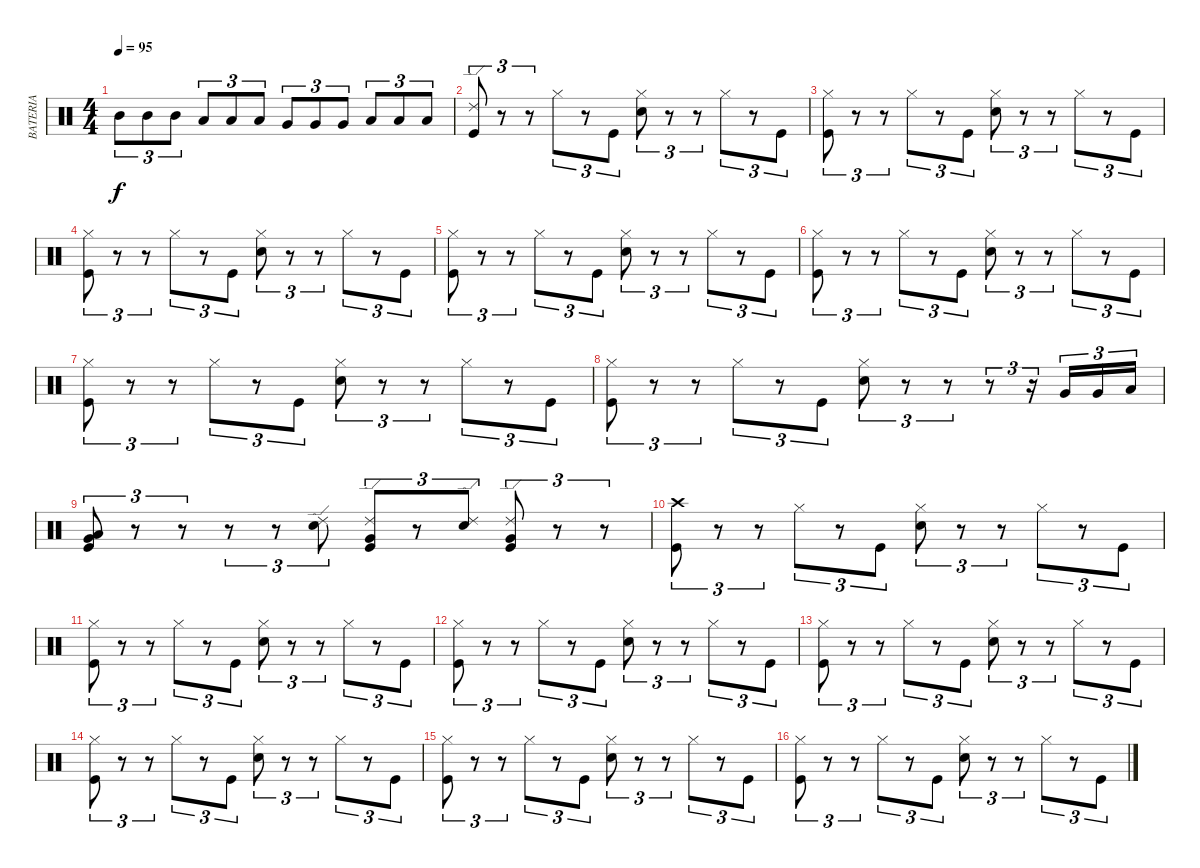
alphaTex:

\track ("BATERIA" "BATERIA") {instrument percussion}
\staff {score}
\articulation defaults
\ts (4 4)
\tempo 95
\clef neutral
\ks c "Mid Tom (hit)".8{tu (3 2) dy f volume 0} "Mid Tom (hit)".8{tu (3 2) volume 13} "Mid Tom (hit)".8{tu (3 2)} "Low Tom (hit)".8{tu (3 2)} "Low Tom (hit)".8{tu (3 2)} "Low Tom (hit)".8{tu (3 2)} "Very Low Tom (hit)".8{tu (3 2)} "Very Low Tom (hit)".8{tu (3 2)} "Very Low Tom (hit)".8{tu (3 2)} "Low Floor Tom (hit)".8{tu (3 2)} "Low Floor Tom (hit)".8{tu (3 2)} "Low Floor Tom (hit)".8{tu (3 2)}
|
("Ride (edge) 2" "Kick (hit)").8{tu (3 2)} r.8{tu (3 2)} r.8{tu (3 2)} "Hi-Hat (closed)".8{tu (3 2)} r.8{tu (3 2)} "Kick (hit)".8{tu (3 2)} ("Hi-Hat (closed)" "Snare (hit) 2").8{tu (3 2)} r.8{tu (3 2)} r.8{tu (3 2)} "Hi-Hat (closed)".8{tu (3 2)} r.8{tu (3 2)} "Kick (hit)".8{tu (3 2)} |
("Hi-Hat (closed)" "Kick (hit)").8{tu (3 2)} r.8{tu (3 2)} r.8{tu (3 2)} "Hi-Hat (closed)".8{tu (3 2)} r.8{tu (3 2)} "Kick (hit)".8{tu (3 2)} ("Hi-Hat (closed)" "Snare (hit) 2").8{tu (3 2)} r.8{tu (3 2)} r.8{tu (3 2)} "Hi-Hat (closed)".8{tu (3 2)} r.8{tu (3 2)} "Kick (hit)".8{tu (3 2)} |
("Hi-Hat (closed)" "Kick (hit)").8{tu (3 2)} r.8{tu (3 2)} r.8{tu (3 2)} "Hi-Hat (closed)".8{tu (3 2)} r.8{tu (3 2)} "Kick (hit)".8{tu (3 2)} ("Hi-Hat (closed)" "Snare (hit) 2").8{tu (3 2)} r.8{tu (3 2)} r.8{tu (3 2)} "Hi-Hat (closed)".8{tu (3 2)} r.8{tu (3 2)} "Kick (hit)".8{tu (3 2)} |
("Hi-Hat (closed)" "Kick (hit)").8{tu (3 2)} r.8{tu (3 2)} r.8{tu (3 2)} "Hi-Hat (closed)".8{tu (3 2)} r.8{tu (3 2)} "Kick (hit)".8{tu (3 2)} ("Hi-Hat (closed)" "Snare (hit) 2").8{tu (3 2)} r.8{tu (3 2)} r.8{tu (3 2)} "Hi-Hat (closed)".8{tu (3 2)} r.8{tu (3 2)} "Kick (hit)".8{tu (3 2)} |
("Hi-Hat (closed)" "Kick (hit)").8{tu (3 2)} r.8{tu (3 2)} r.8{tu (3 2)} "Hi-Hat (closed)".8{tu (3 2)} r.8{tu (3 2)} "Kick (hit)".8{tu (3 2)} ("Hi-Hat (closed)" "Snare (hit) 2").8{tu (3 2)} r.8{tu (3 2)} r.8{tu (3 2)} "Hi-Hat (closed)".8{tu (3 2)} r.8{tu (3 2)} "Kick (hit)".8{tu (3 2)} |
("Hi-Hat (closed)" "Kick (hit)").8{tu (3 2)} r.8{tu (3 2)} r.8{tu (3 2)} "Hi-Hat (closed)".8{tu (3 2)} r.8{tu (3 2)} "Kick (hit)".8{tu (3 2)} ("Hi-Hat (closed)" "Snare (hit) 2").8{tu (3 2)} r.8{tu (3 2)} r.8{tu (3 2)} "Hi-Hat (closed)".8{tu (3 2)} r.8{tu (3 2)} "Kick (hit)".8{tu (3 2)} |
("Hi-Hat (closed)" "Kick (hit)").8{tu (3 2)} r.8{tu (3 2)} r.8{tu (3 2)} "Hi-Hat (closed)".8{tu (3 2)} r.8{tu (3 2)} "Kick (hit)".8{tu (3 2)} ("Hi-Hat (closed)" "Snare (hit) 2").8{tu (3 2)} r.8{tu (3 2)} r.8{tu (3 2)} r.8{tu (3 2)} r.16{tu (3 2)} "Very Low Tom (hit)".16{tu (3 2)} "Very Low Tom (hit)".16{tu (3 2)} "Low Floor Tom (hit)".16{tu (3 2)} |
("Low Floor Tom (hit)" "Very Low Tom (hit)" "Kick (hit)").8{tu (3 2)} r.8{tu (3 2)} r.8{tu (3 2)} r.8{tu (3 2)} r.8{tu (3 2)} ("Ride (edge) 2" "Snare (hit) 2").8{tu (3 2)} ("Ride (edge) 2" "Very Low Tom (hit)" "Kick (hit)").8{tu (3 2)} r.8{tu (3 2)} ("Ride (edge) 2" "Snare (hit) 2").8{tu (3 2)} ("Ride (edge) 2" "Very Low Tom (hit)" "Kick (hit)").8{tu (3 2)} r.8{tu (3 2)} r.8{tu (3 2)} |
("Crash high (hit)" "Kick (hit)").8{tu (3 2)} r.8{tu (3 2)} r.8{tu (3 2)} "Hi-Hat (closed)".8{tu (3 2)} r.8{tu (3 2)} "Kick (hit)".8{tu (3 2)} ("Hi-Hat (closed)" "Snare (hit) 2").8{tu (3 2)} r.8{tu (3 2)} r.8{tu (3 2)} "Hi-Hat (closed)".8{tu (3 2)} r.8{tu (3 2)} "Kick (hit)".8{tu (3 2)} |
("Hi-Hat (closed)" "Kick (hit)").8{tu (3 2)} r.8{tu (3 2)} r.8{tu (3 2)} "Hi-Hat (closed)".8{tu (3 2)} r.8{tu (3 2)} "Kick (hit)".8{tu (3 2)} ("Hi-Hat (closed)" "Snare (hit) 2").8{tu (3 2)} r.8{tu (3 2)} r.8{tu (3 2)} "Hi-Hat (closed)".8{tu (3 2)} r.8{tu (3 2)} "Kick (hit)".8{tu (3 2)} |
("Hi-Hat (closed)" "Kick (hit)").8{tu (3 2)} r.8{tu (3 2)} r.8{tu (3 2)} "Hi-Hat (closed)".8{tu (3 2)} r.8{tu (3 2)} "Kick (hit)".8{tu (3 2)} ("Hi-Hat (closed)" "Snare (hit) 2").8{tu (3 2)} r.8{tu (3 2)} r.8{tu (3 2)} "Hi-Hat (closed)".8{tu (3 2)} r.8{tu (3 2)} "Kick (hit)".8{tu (3 2)} |
("Hi-Hat (closed)" "Kick (hit)").8{tu (3 2)} r.8{tu (3 2)} r.8{tu (3 2)} "Hi-Hat (closed)".8{tu (3 2)} r.8{tu (3 2)} "Kick (hit)".8{tu (3 2)} ("Hi-Hat (closed)" "Snare (hit) 2").8{tu (3 2)} r.8{tu (3 2)} r.8{tu (3 2)} "Hi-Hat (closed)".8{tu (3 2)} r.8{tu (3 2)} "Kick (hit)".8{tu (3 2)} |
("Hi-Hat (closed)" "Kick (hit)").8{tu (3 2)} r.8{tu (3 2)} r.8{tu (3 2)} "Hi-Hat (closed)".8{tu (3 2)} r.8{tu (3 2)} "Kick (hit)".8{tu (3 2)} ("Hi-Hat (closed)" "Snare (hit) 2").8{tu (3 2)} r.8{tu (3 2)} r.8{tu (3 2)} "Hi-Hat (closed)".8{tu (3 2)} r.8{tu (3 2)} "Kick (hit)".8{tu (3 2)} |
("Hi-Hat (closed)" "Kick (hit)").8{tu (3 2)} r.8{tu (3 2)} r.8{tu (3 2)} "Hi-Hat (closed)".8{tu (3 2)} r.8{tu (3 2)} "Kick (hit)".8{tu (3 2)} ("Hi-Hat (closed)" "Snare (hit) 2").8{tu (3 2)} r.8{tu (3 2)} r.8{tu (3 2)} "Hi-Hat (closed)".8{tu (3 2)} r.8{tu (3 2)} "Kick (hit)".8{tu (3 2)} |
("Hi-Hat (closed)" "Kick (hit)").8{tu (3 2)} r.8{tu (3 2)} r.8{tu (3 2)} "Hi-Hat (closed)".8{tu (3 2)} r.8{tu (3 2)} "Kick (hit)".8{tu (3 2)} ("Hi-Hat (closed)" "Snare (hit) 2").8{tu (3 2)} r.8{tu (3 2)} r.8{tu (3 2)} "Hi-Hat (closed)".8{tu (3 2)} r.8{tu (3 2)} "Kick (hit)".8{tu (3 2)}
